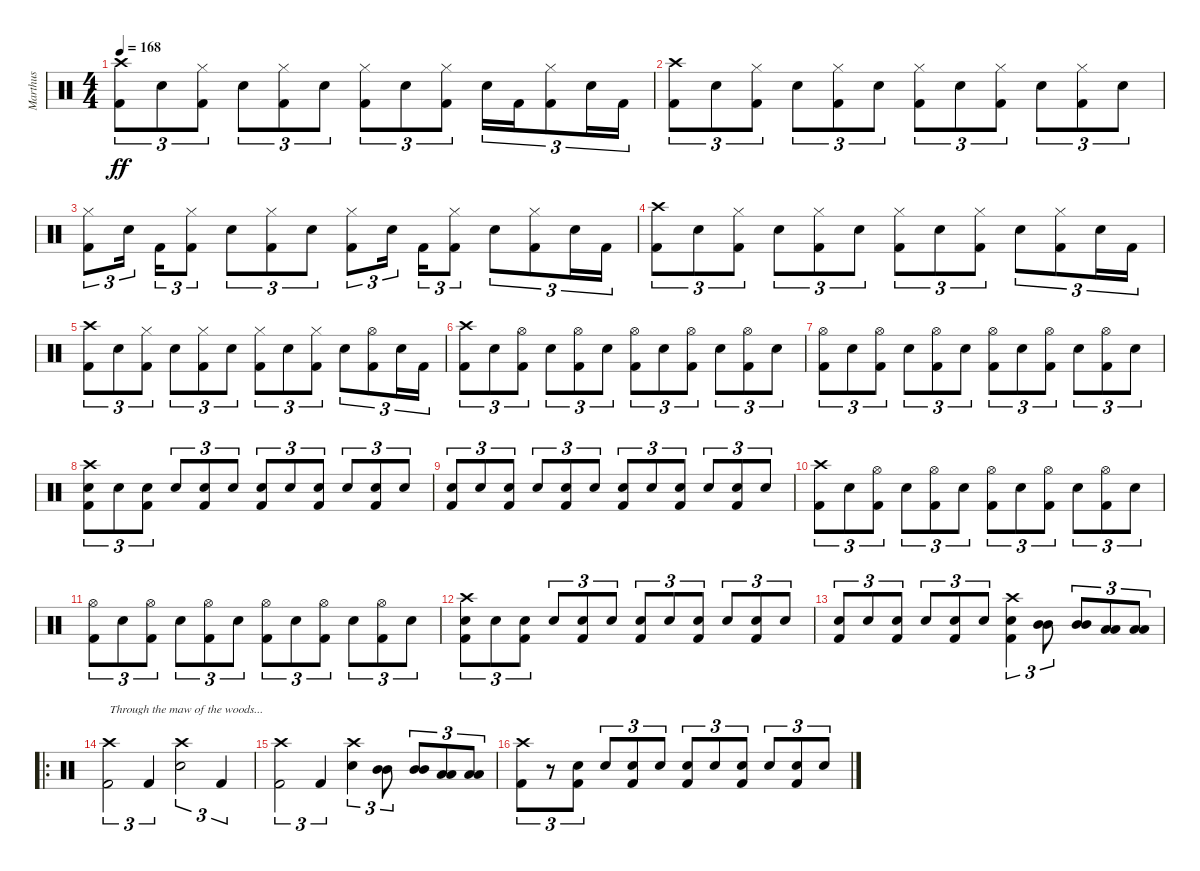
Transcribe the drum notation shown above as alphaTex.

\track ("Marthus" "Marthus") {instrument percussion}
\staff {score}
\articulation defaults
\ts (4 4)
\tempo 168
\clef neutral
\ks c
("Crash high (hit)" "Kick (hit) 2").8{tu (3 2) dy ff} "Electric Snare (hit)".8{tu (3 2)} ("Hi-Hat (closed)" "Kick (hit) 2").8{tu (3 2)} "Electric Snare (hit)".8{tu (3 2)} ("Hi-Hat (closed)" "Kick (hit) 2").8{tu (3 2)} "Electric Snare (hit)".8{tu (3 2)} ("Hi-Hat (closed)" "Kick (hit) 2").8{tu (3 2)} "Electric Snare (hit)".8{tu (3 2)} ("Hi-Hat (closed)" "Kick (hit) 2").8{tu (3 2)} "Electric Snare (hit)".16{tu (3 2)} "Kick (hit) 2".16{tu (3 2)} ("Hi-Hat (closed)" "Kick (hit) 2").8{tu (3 2)} "Electric Snare (hit)".16{tu (3 2)} "Kick (hit) 2".16{tu (3 2)} |
("Crash high (hit)" "Kick (hit) 2").8{tu (3 2)} "Electric Snare (hit)".8{tu (3 2)} ("Hi-Hat (closed)" "Kick (hit) 2").8{tu (3 2)} "Electric Snare (hit)".8{tu (3 2)} ("Hi-Hat (closed)" "Kick (hit) 2").8{tu (3 2)} "Electric Snare (hit)".8{tu (3 2)} ("Hi-Hat (closed)" "Kick (hit) 2").8{tu (3 2)} "Electric Snare (hit)".8{tu (3 2)} ("Hi-Hat (closed)" "Kick (hit) 2").8{tu (3 2)} "Electric Snare (hit)".8{tu (3 2)} ("Hi-Hat (closed)" "Kick (hit) 2").8{tu (3 2)} "Electric Snare (hit)".8{tu (3 2)} |
("Hi-Hat (closed)" "Kick (hit) 2").8{tu (3 2)} "Electric Snare (hit)".16{tu (3 2) beam splitsecondary} "Kick (hit) 2".16{tu (3 2)} ("Hi-Hat (closed)" "Kick (hit) 2").8{tu (3 2)} "Electric Snare (hit)".8{tu (3 2)} ("Hi-Hat (closed)" "Kick (hit) 2").8{tu (3 2)} "Electric Snare (hit)".8{tu (3 2)} ("Hi-Hat (closed)" "Kick (hit) 2").8{tu (3 2)} "Electric Snare (hit)".16{tu (3 2) beam splitsecondary} "Kick (hit) 2".16{tu (3 2)} ("Hi-Hat (closed)" "Kick (hit) 2").8{tu (3 2)} "Electric Snare (hit)".8{tu (3 2)} ("Hi-Hat (closed)" "Kick (hit) 2").8{tu (3 2)} "Electric Snare (hit)".16{tu (3 2)} "Kick (hit) 2".16{tu (3 2)} |
("Crash high (hit)" "Kick (hit) 2").8{tu (3 2)} "Electric Snare (hit)".8{tu (3 2)} ("Hi-Hat (closed)" "Kick (hit) 2").8{tu (3 2)} "Electric Snare (hit)".8{tu (3 2)} ("Hi-Hat (closed)" "Kick (hit) 2").8{tu (3 2)} "Electric Snare (hit)".8{tu (3 2)} ("Hi-Hat (closed)" "Kick (hit) 2").8{tu (3 2)} "Electric Snare (hit)".8{tu (3 2)} ("Hi-Hat (closed)" "Kick (hit) 2").8{tu (3 2)} "Electric Snare (hit)".8{tu (3 2)} ("Hi-Hat (closed)" "Kick (hit) 2").8{tu (3 2)} "Electric Snare (hit)".16{tu (3 2)} "Kick (hit) 2".16{tu (3 2)} |
("Crash high (hit)" "Kick (hit) 2").8{tu (3 2)} "Electric Snare (hit)".8{tu (3 2)} ("Hi-Hat (closed)" "Kick (hit) 2").8{tu (3 2)} "Electric Snare (hit)".8{tu (3 2)} ("Hi-Hat (closed)" "Kick (hit) 2").8{tu (3 2)} "Electric Snare (hit)".8{tu (3 2)} ("Hi-Hat (closed)" "Kick (hit) 2").8{tu (3 2)} "Electric Snare (hit)".8{tu (3 2)} ("Hi-Hat (closed)" "Kick (hit) 2").8{tu (3 2)} "Electric Snare (hit)".8{tu (3 2)} ("Hi-Hat (open)" "Kick (hit) 2").8{tu (3 2)} "Electric Snare (hit)".16{tu (3 2)} "Kick (hit) 2".16{tu (3 2)} |
("Crash high (hit)" "Kick (hit) 2").8{tu (3 2)} "Electric Snare (hit)".8{tu (3 2)} ("Hi-Hat (open)" "Kick (hit) 2").8{tu (3 2)} "Electric Snare (hit)".8{tu (3 2)} ("Hi-Hat (open)" "Kick (hit) 2").8{tu (3 2)} "Electric Snare (hit)".8{tu (3 2)} ("Hi-Hat (open)" "Kick (hit) 2").8{tu (3 2)} "Electric Snare (hit)".8{tu (3 2)} ("Hi-Hat (open)" "Kick (hit) 2").8{tu (3 2)} "Electric Snare (hit)".8{tu (3 2)} ("Hi-Hat (open)" "Kick (hit) 2").8{tu (3 2)} "Electric Snare (hit)".8{tu (3 2)} |
("Hi-Hat (open)" "Kick (hit) 2").8{tu (3 2)} "Electric Snare (hit)".8{tu (3 2)} ("Hi-Hat (open)" "Kick (hit) 2").8{tu (3 2)} "Electric Snare (hit)".8{tu (3 2)} ("Hi-Hat (open)" "Kick (hit) 2").8{tu (3 2)} "Electric Snare (hit)".8{tu (3 2)} ("Hi-Hat (open)" "Kick (hit) 2").8{tu (3 2)} "Electric Snare (hit)".8{tu (3 2)} ("Hi-Hat (open)" "Kick (hit) 2").8{tu (3 2)} "Electric Snare (hit)".8{tu (3 2)} ("Hi-Hat (open)" "Kick (hit) 2").8{tu (3 2)} "Electric Snare (hit)".8{tu (3 2)} |
("Crash high (hit)" "Electric Snare (hit)" "Kick (hit) 2").8{tu (3 2)} "Electric Snare (hit)".8{tu (3 2)} ("Electric Snare (hit)" "Kick (hit) 2").8{tu (3 2)} "Electric Snare (hit)".8{tu (3 2)} ("Electric Snare (hit)" "Kick (hit) 2").8{tu (3 2)} "Electric Snare (hit)".8{tu (3 2)} ("Electric Snare (hit)" "Kick (hit) 2").8{tu (3 2)} "Electric Snare (hit)".8{tu (3 2)} ("Electric Snare (hit)" "Kick (hit) 2").8{tu (3 2)} "Electric Snare (hit)".8{tu (3 2)} ("Electric Snare (hit)" "Kick (hit) 2").8{tu (3 2)} "Electric Snare (hit)".8{tu (3 2)} |
("Electric Snare (hit)" "Kick (hit) 2").8{tu (3 2)} "Electric Snare (hit)".8{tu (3 2)} ("Electric Snare (hit)" "Kick (hit) 2").8{tu (3 2)} "Electric Snare (hit)".8{tu (3 2)} ("Electric Snare (hit)" "Kick (hit) 2").8{tu (3 2)} "Electric Snare (hit)".8{tu (3 2)} ("Electric Snare (hit)" "Kick (hit) 2").8{tu (3 2)} "Electric Snare (hit)".8{tu (3 2)} ("Electric Snare (hit)" "Kick (hit) 2").8{tu (3 2)} "Electric Snare (hit)".8{tu (3 2)} ("Electric Snare (hit)" "Kick (hit) 2").8{tu (3 2)} "Electric Snare (hit)".8{tu (3 2)} |
("Crash high (hit)" "Kick (hit) 2").8{tu (3 2)} "Electric Snare (hit)".8{tu (3 2)} ("Hi-Hat (open)" "Kick (hit) 2").8{tu (3 2)} "Electric Snare (hit)".8{tu (3 2)} ("Hi-Hat (open)" "Kick (hit) 2").8{tu (3 2)} "Electric Snare (hit)".8{tu (3 2)} ("Hi-Hat (open)" "Kick (hit) 2").8{tu (3 2)} "Electric Snare (hit)".8{tu (3 2)} ("Hi-Hat (open)" "Kick (hit) 2").8{tu (3 2)} "Electric Snare (hit)".8{tu (3 2)} ("Hi-Hat (open)" "Kick (hit) 2").8{tu (3 2)} "Electric Snare (hit)".8{tu (3 2)} |
("Hi-Hat (open)" "Kick (hit) 2").8{tu (3 2)} "Electric Snare (hit)".8{tu (3 2)} ("Hi-Hat (open)" "Kick (hit) 2").8{tu (3 2)} "Electric Snare (hit)".8{tu (3 2)} ("Hi-Hat (open)" "Kick (hit) 2").8{tu (3 2)} "Electric Snare (hit)".8{tu (3 2)} ("Hi-Hat (open)" "Kick (hit) 2").8{tu (3 2)} "Electric Snare (hit)".8{tu (3 2)} ("Hi-Hat (open)" "Kick (hit) 2").8{tu (3 2)} "Electric Snare (hit)".8{tu (3 2)} ("Hi-Hat (open)" "Kick (hit) 2").8{tu (3 2)} "Electric Snare (hit)".8{tu (3 2)} |
("Crash high (hit)" "Electric Snare (hit)" "Kick (hit) 2").8{tu (3 2)} "Electric Snare (hit)".8{tu (3 2)} ("Electric Snare (hit)" "Kick (hit) 2").8{tu (3 2)} "Electric Snare (hit)".8{tu (3 2)} ("Electric Snare (hit)" "Kick (hit) 2").8{tu (3 2)} "Electric Snare (hit)".8{tu (3 2)} ("Electric Snare (hit)" "Kick (hit) 2").8{tu (3 2)} "Electric Snare (hit)".8{tu (3 2)} ("Electric Snare (hit)" "Kick (hit) 2").8{tu (3 2)} "Electric Snare (hit)".8{tu (3 2)} ("Electric Snare (hit)" "Kick (hit) 2").8{tu (3 2)} "Electric Snare (hit)".8{tu (3 2)} |
("Electric Snare (hit)" "Kick (hit) 2").8{tu (3 2)} "Electric Snare (hit)".8{tu (3 2)} ("Electric Snare (hit)" "Kick (hit) 2").8{tu (3 2)} "Electric Snare (hit)".8{tu (3 2)} ("Electric Snare (hit)" "Kick (hit) 2").8{tu (3 2)} "Electric Snare (hit)".8{tu (3 2)} ("Crash high (hit)" "Electric Snare (hit)" "Kick (hit) 2").4{tu (3 2)} ("Mid Tom (hit)" "Mid Tom (hit)").8{tu (3 2)} ("Mid Tom (hit)" "Mid Tom (hit)").8{tu (3 2)} ("Low Tom (hit)" "Low Tom (hit)").8{tu (3 2)} ("Low Tom (hit)" "Low Tom (hit)").8{tu (3 2)} |
\ro
("Crash high (hit)" "Kick (hit) 2").2{tu (3 2) txt "Through the maw of the woods..."} "Kick (hit) 2".4{tu (3 2)} ("Crash high (hit)" "Electric Snare (hit)").2{tu (3 2)} "Kick (hit) 2".4{tu (3 2)} |
("Crash high (hit)" "Kick (hit) 2").2{tu (3 2)} "Kick (hit) 2".4{tu (3 2)} ("Crash high (hit)" "Electric Snare (hit)").4{tu (3 2)} ("Mid Tom (hit)" "Mid Tom (hit)").8{tu (3 2) balance 6} ("Mid Tom (hit)" "Mid Tom (hit)").8{tu (3 2)} ("Low Tom (hit)" "Low Tom (hit)").8{tu (3 2) balance 8} ("Low Tom (hit)" "Low Tom (hit)").8{tu (3 2)} |
("Crash high (hit)" "Kick (hit) 2").8{tu (3 2)} r.8{tu (3 2)} ("Electric Snare (hit)" "Kick (hit) 2").8{tu (3 2)} "Electric Snare (hit)".8{tu (3 2)} ("Electric Snare (hit)" "Kick (hit) 2").8{tu (3 2)} "Electric Snare (hit)".8{tu (3 2)} ("Electric Snare (hit)" "Kick (hit) 2").8{tu (3 2)} "Electric Snare (hit)".8{tu (3 2)} ("Electric Snare (hit)" "Kick (hit) 2").8{tu (3 2)} "Electric Snare (hit)".8{tu (3 2)} ("Electric Snare (hit)" "Kick (hit) 2").8{tu (3 2)} "Electric Snare (hit)".8{tu (3 2)}
